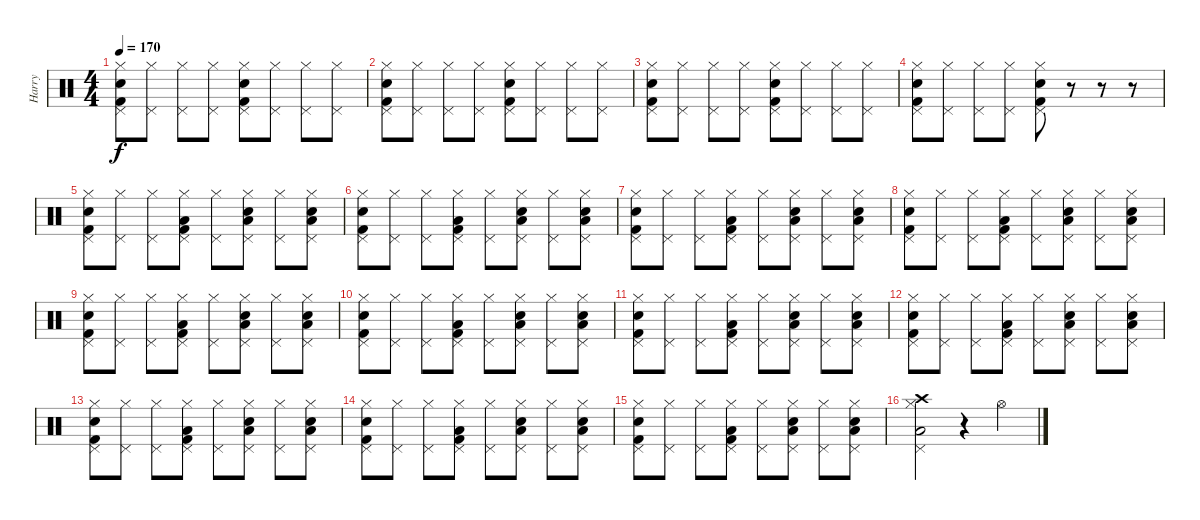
\track ("Harry" "Harry") {instrument percussion}
\staff {score}
\articulation defaults
\ts (4 4)
\tempo 170
\clef neutral
\ks c
("Hi-Hat (closed)" "Pedal Hi-Hat (hit)" "Kick (hit) 2" "Snare (hit) 2").8{dy f} ("Hi-Hat (closed)" "Pedal Hi-Hat (hit)").8 ("Hi-Hat (closed)" "Pedal Hi-Hat (hit)").8 ("Hi-Hat (closed)" "Pedal Hi-Hat (hit)").8 ("Hi-Hat (closed)" "Pedal Hi-Hat (hit)" "Kick (hit) 2" "Snare (hit) 2").8 ("Hi-Hat (closed)" "Pedal Hi-Hat (hit)").8 ("Hi-Hat (closed)" "Pedal Hi-Hat (hit)").8 ("Hi-Hat (closed)" "Pedal Hi-Hat (hit)").8 |
("Hi-Hat (closed)" "Pedal Hi-Hat (hit)" "Kick (hit) 2" "Snare (hit) 2").8 ("Hi-Hat (closed)" "Pedal Hi-Hat (hit)").8 ("Hi-Hat (closed)" "Pedal Hi-Hat (hit)").8 ("Hi-Hat (closed)" "Pedal Hi-Hat (hit)").8 ("Hi-Hat (closed)" "Pedal Hi-Hat (hit)" "Kick (hit) 2" "Snare (hit) 2").8 ("Hi-Hat (closed)" "Pedal Hi-Hat (hit)").8 ("Hi-Hat (closed)" "Pedal Hi-Hat (hit)").8 ("Hi-Hat (closed)" "Pedal Hi-Hat (hit)").8 |
("Hi-Hat (closed)" "Pedal Hi-Hat (hit)" "Kick (hit) 2" "Snare (hit) 2").8 ("Hi-Hat (closed)" "Pedal Hi-Hat (hit)").8 ("Hi-Hat (closed)" "Pedal Hi-Hat (hit)").8 ("Hi-Hat (closed)" "Pedal Hi-Hat (hit)").8 ("Hi-Hat (closed)" "Pedal Hi-Hat (hit)" "Kick (hit) 2" "Snare (hit) 2").8 ("Hi-Hat (closed)" "Pedal Hi-Hat (hit)").8 ("Hi-Hat (closed)" "Pedal Hi-Hat (hit)").8 ("Hi-Hat (closed)" "Pedal Hi-Hat (hit)").8 |
("Hi-Hat (closed)" "Pedal Hi-Hat (hit)" "Kick (hit) 2" "Snare (hit) 2").8 ("Hi-Hat (closed)" "Pedal Hi-Hat (hit)").8 ("Hi-Hat (closed)" "Pedal Hi-Hat (hit)").8 ("Hi-Hat (closed)" "Pedal Hi-Hat (hit)").8 ("Hi-Hat (closed)" "Pedal Hi-Hat (hit)" "Kick (hit) 2" "Snare (hit) 2").8 r.8 r.8 r.8 |
("Hi-Hat (closed)" "Pedal Hi-Hat (hit)" "Kick (hit) 2" "Snare (hit) 2").8 ("Hi-Hat (closed)" "Pedal Hi-Hat (hit)").8 ("Hi-Hat (closed)" "Pedal Hi-Hat (hit)").8 ("Hi-Hat (closed)" "Pedal Hi-Hat (hit)" "Low Floor Tom (hit)" "Kick (hit) 2").8 ("Hi-Hat (closed)" "Pedal Hi-Hat (hit)").8 ("Hi-Hat (closed)" "Pedal Hi-Hat (hit)" "Low Floor Tom (hit)" "Snare (hit) 2").8 ("Hi-Hat (closed)" "Pedal Hi-Hat (hit)").8 ("Hi-Hat (closed)" "Pedal Hi-Hat (hit)" "Low Floor Tom (hit)" "Snare (hit) 2").8 |
("Hi-Hat (closed)" "Pedal Hi-Hat (hit)" "Kick (hit) 2" "Snare (hit) 2").8 ("Hi-Hat (closed)" "Pedal Hi-Hat (hit)").8 ("Hi-Hat (closed)" "Pedal Hi-Hat (hit)").8 ("Hi-Hat (closed)" "Pedal Hi-Hat (hit)" "Low Floor Tom (hit)" "Kick (hit) 2").8 ("Hi-Hat (closed)" "Pedal Hi-Hat (hit)").8 ("Hi-Hat (closed)" "Pedal Hi-Hat (hit)" "Low Floor Tom (hit)" "Snare (hit) 2").8 ("Hi-Hat (closed)" "Pedal Hi-Hat (hit)").8 ("Hi-Hat (closed)" "Pedal Hi-Hat (hit)" "Low Floor Tom (hit)" "Snare (hit) 2").8 |
("Hi-Hat (closed)" "Pedal Hi-Hat (hit)" "Kick (hit) 2" "Snare (hit) 2").8 ("Hi-Hat (closed)" "Pedal Hi-Hat (hit)").8 ("Hi-Hat (closed)" "Pedal Hi-Hat (hit)").8 ("Hi-Hat (closed)" "Pedal Hi-Hat (hit)" "Low Floor Tom (hit)" "Kick (hit) 2").8 ("Hi-Hat (closed)" "Pedal Hi-Hat (hit)").8 ("Hi-Hat (closed)" "Pedal Hi-Hat (hit)" "Low Floor Tom (hit)" "Snare (hit) 2").8 ("Hi-Hat (closed)" "Pedal Hi-Hat (hit)").8 ("Hi-Hat (closed)" "Pedal Hi-Hat (hit)" "Low Floor Tom (hit)" "Snare (hit) 2").8 |
("Hi-Hat (closed)" "Pedal Hi-Hat (hit)" "Kick (hit) 2" "Snare (hit) 2").8 ("Hi-Hat (closed)" "Pedal Hi-Hat (hit)").8 ("Hi-Hat (closed)" "Pedal Hi-Hat (hit)").8 ("Hi-Hat (closed)" "Pedal Hi-Hat (hit)" "Low Floor Tom (hit)" "Kick (hit) 2").8 ("Hi-Hat (closed)" "Pedal Hi-Hat (hit)").8 ("Hi-Hat (closed)" "Pedal Hi-Hat (hit)" "Low Floor Tom (hit)" "Snare (hit) 2").8 ("Hi-Hat (closed)" "Pedal Hi-Hat (hit)").8 ("Hi-Hat (closed)" "Pedal Hi-Hat (hit)" "Low Floor Tom (hit)" "Snare (hit) 2").8 |
("Hi-Hat (closed)" "Pedal Hi-Hat (hit)" "Kick (hit) 2" "Snare (hit) 2").8 ("Hi-Hat (closed)" "Pedal Hi-Hat (hit)").8 ("Hi-Hat (closed)" "Pedal Hi-Hat (hit)").8 ("Hi-Hat (closed)" "Pedal Hi-Hat (hit)" "Low Floor Tom (hit)" "Kick (hit) 2").8 ("Hi-Hat (closed)" "Pedal Hi-Hat (hit)").8 ("Hi-Hat (closed)" "Pedal Hi-Hat (hit)" "Low Floor Tom (hit)" "Snare (hit) 2").8 ("Hi-Hat (closed)" "Pedal Hi-Hat (hit)").8 ("Hi-Hat (closed)" "Pedal Hi-Hat (hit)" "Low Floor Tom (hit)" "Snare (hit) 2").8 |
("Hi-Hat (closed)" "Pedal Hi-Hat (hit)" "Kick (hit) 2" "Snare (hit) 2").8 ("Hi-Hat (closed)" "Pedal Hi-Hat (hit)").8 ("Hi-Hat (closed)" "Pedal Hi-Hat (hit)").8 ("Hi-Hat (closed)" "Pedal Hi-Hat (hit)" "Low Floor Tom (hit)" "Kick (hit) 2").8 ("Hi-Hat (closed)" "Pedal Hi-Hat (hit)").8 ("Hi-Hat (closed)" "Pedal Hi-Hat (hit)" "Low Floor Tom (hit)" "Snare (hit) 2").8 ("Hi-Hat (closed)" "Pedal Hi-Hat (hit)").8 ("Hi-Hat (closed)" "Pedal Hi-Hat (hit)" "Low Floor Tom (hit)" "Snare (hit) 2").8 |
("Hi-Hat (closed)" "Pedal Hi-Hat (hit)" "Kick (hit) 2" "Snare (hit) 2").8 ("Hi-Hat (closed)" "Pedal Hi-Hat (hit)").8 ("Hi-Hat (closed)" "Pedal Hi-Hat (hit)").8 ("Hi-Hat (closed)" "Pedal Hi-Hat (hit)" "Low Floor Tom (hit)" "Kick (hit) 2").8 ("Hi-Hat (closed)" "Pedal Hi-Hat (hit)").8 ("Hi-Hat (closed)" "Pedal Hi-Hat (hit)" "Low Floor Tom (hit)" "Snare (hit) 2").8 ("Hi-Hat (closed)" "Pedal Hi-Hat (hit)").8 ("Hi-Hat (closed)" "Pedal Hi-Hat (hit)" "Low Floor Tom (hit)" "Snare (hit) 2").8 |
("Hi-Hat (closed)" "Pedal Hi-Hat (hit)" "Kick (hit) 2" "Snare (hit) 2").8 ("Hi-Hat (closed)" "Pedal Hi-Hat (hit)").8 ("Hi-Hat (closed)" "Pedal Hi-Hat (hit)").8 ("Hi-Hat (closed)" "Pedal Hi-Hat (hit)" "Low Floor Tom (hit)" "Kick (hit) 2").8 ("Hi-Hat (closed)" "Pedal Hi-Hat (hit)").8 ("Hi-Hat (closed)" "Pedal Hi-Hat (hit)" "Low Floor Tom (hit)" "Snare (hit) 2").8 ("Hi-Hat (closed)" "Pedal Hi-Hat (hit)").8 ("Hi-Hat (closed)" "Pedal Hi-Hat (hit)" "Low Floor Tom (hit)" "Snare (hit) 2").8 |
("Hi-Hat (closed)" "Pedal Hi-Hat (hit)" "Kick (hit) 2" "Snare (hit) 2").8 ("Hi-Hat (closed)" "Pedal Hi-Hat (hit)").8 ("Hi-Hat (closed)" "Pedal Hi-Hat (hit)").8 ("Hi-Hat (closed)" "Pedal Hi-Hat (hit)" "Low Floor Tom (hit)" "Kick (hit) 2").8 ("Hi-Hat (closed)" "Pedal Hi-Hat (hit)").8 ("Hi-Hat (closed)" "Pedal Hi-Hat (hit)" "Low Floor Tom (hit)" "Snare (hit) 2").8 ("Hi-Hat (closed)" "Pedal Hi-Hat (hit)").8 ("Hi-Hat (closed)" "Pedal Hi-Hat (hit)" "Low Floor Tom (hit)" "Snare (hit) 2").8 |
("Hi-Hat (closed)" "Pedal Hi-Hat (hit)" "Kick (hit) 2" "Snare (hit) 2").8 ("Hi-Hat (closed)" "Pedal Hi-Hat (hit)").8 ("Hi-Hat (closed)" "Pedal Hi-Hat (hit)").8 ("Hi-Hat (closed)" "Pedal Hi-Hat (hit)" "Low Floor Tom (hit)" "Kick (hit) 2").8 ("Hi-Hat (closed)" "Pedal Hi-Hat (hit)").8 ("Hi-Hat (closed)" "Pedal Hi-Hat (hit)" "Low Floor Tom (hit)" "Snare (hit) 2").8 ("Hi-Hat (closed)" "Pedal Hi-Hat (hit)").8 ("Hi-Hat (closed)" "Pedal Hi-Hat (hit)" "Low Floor Tom (hit)" "Snare (hit) 2").8 |
("Hi-Hat (closed)" "Pedal Hi-Hat (hit)" "Kick (hit) 2" "Snare (hit) 2").8 ("Hi-Hat (closed)" "Pedal Hi-Hat (hit)").8 ("Hi-Hat (closed)" "Pedal Hi-Hat (hit)").8 ("Hi-Hat (closed)" "Pedal Hi-Hat (hit)" "Low Floor Tom (hit)" "Kick (hit) 2").8 ("Hi-Hat (closed)" "Pedal Hi-Hat (hit)").8 ("Hi-Hat (closed)" "Pedal Hi-Hat (hit)" "Low Floor Tom (hit)" "Snare (hit) 2").8 ("Hi-Hat (closed)" "Pedal Hi-Hat (hit)").8 ("Hi-Hat (closed)" "Pedal Hi-Hat (hit)" "Low Floor Tom (hit)" "Snare (hit) 2").8 |
("Hi-Hat (closed)" "Pedal Hi-Hat (hit)" "Low Floor Tom (hit)" "Crash high (hit)").2 r.4 "Hi-Hat (open)".4
